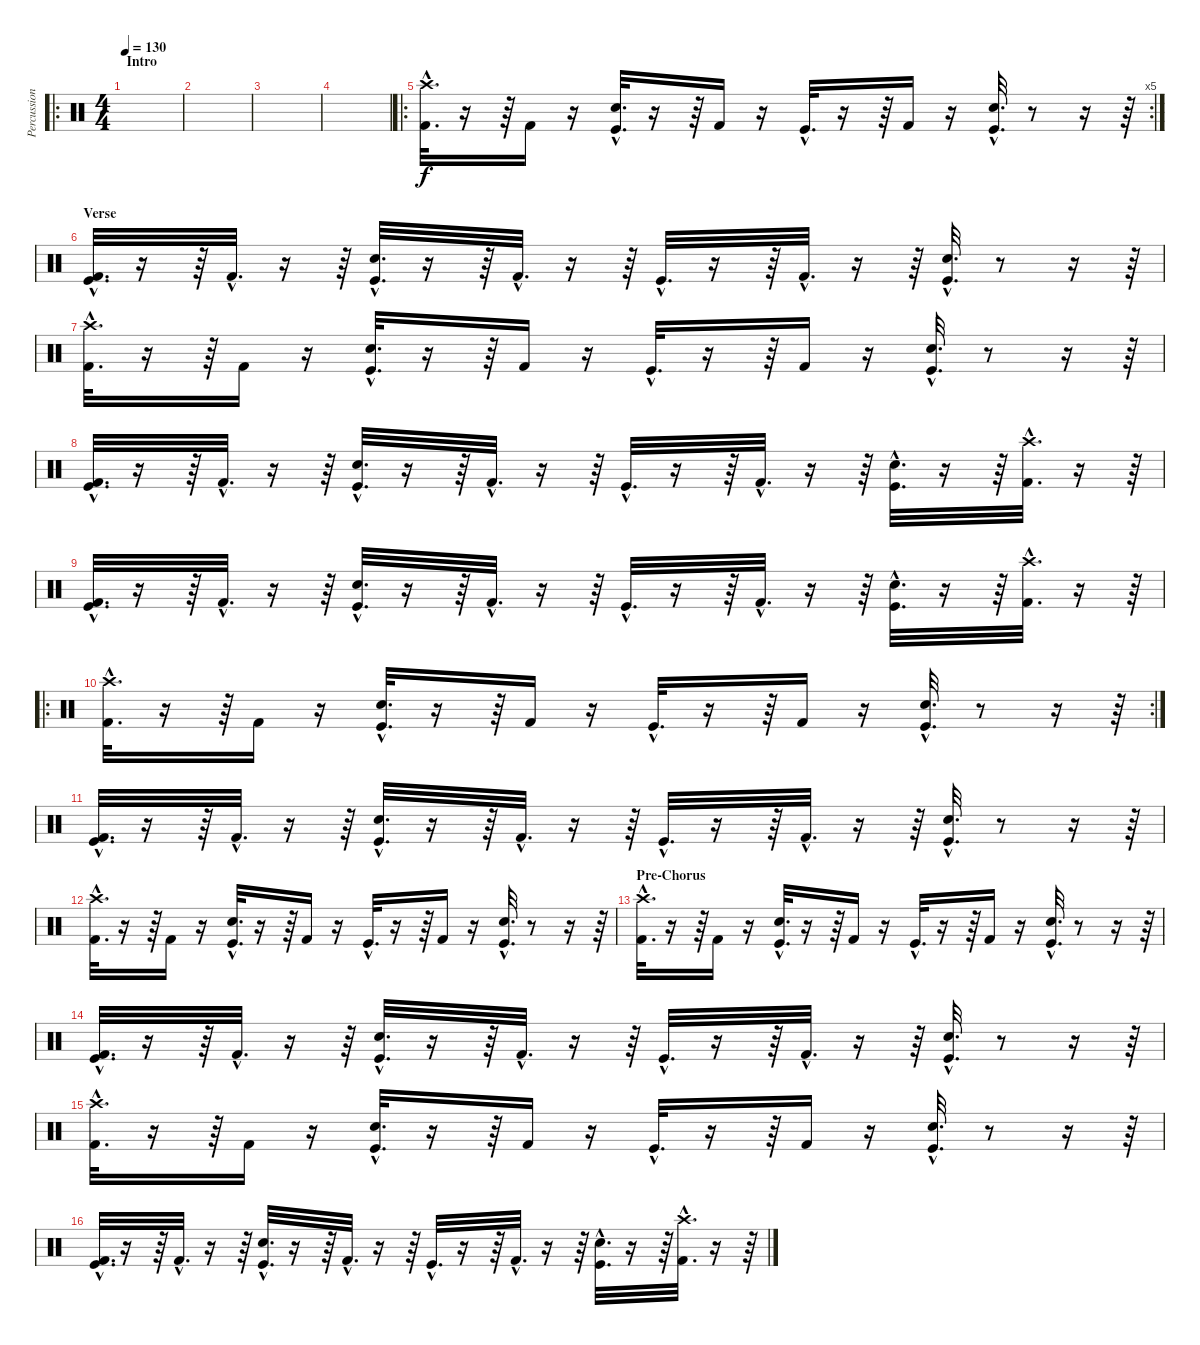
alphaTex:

\track ("Percussion" "Percussion") {instrument percussion}
\staff {score}
\articulation defaults
\ro
\ts (4 4)
\section ("" "Intro")
\tempo 130
\clef neutral
\ks c
|
|
|
|
\ro
\rc 5
("Kick (hit) 2"{hac} "Crash high (hit)"{hac}).32{d} r.16 r.64 "Kick (hit) 2".16 r.16 ("Kick (hit)"{hac} "Snare (hit) 2"{hac}).32{d} r.16 r.64 "Kick (hit) 2".16 r.16 "Kick (hit)"{hac}.32{d} r.16 r.64 "Kick (hit) 2".16 r.16 ("Kick (hit)"{hac} "Snare (hit) 2"{hac}).32{d} r.8 r.16 r.64 |
\section ("" "Verse ")
("Kick (hit)"{hac} "Kick (hit) 2"{hac}).32{d} r.16 r.64 "Kick (hit) 2"{hac}.32{d} r.16 r.64 ("Snare (hit) 2"{hac} "Kick (hit)"{hac}).32{d} r.16 r.64 "Kick (hit) 2"{hac}.32{d} r.16 r.64 "Kick (hit)"{hac}.32{d} r.16 r.64 "Kick (hit) 2"{hac}.32{d} r.16 r.64 ("Snare (hit) 2"{hac} "Kick (hit)"{hac}).32{d} r.8 r.16 r.64 |
("Kick (hit) 2"{hac} "Crash high (hit)"{hac}).32{d} r.16 r.64 "Kick (hit) 2".16 r.16 ("Kick (hit)"{hac} "Snare (hit) 2"{hac}).32{d} r.16 r.64 "Kick (hit) 2".16 r.16 "Kick (hit)"{hac}.32{d} r.16 r.64 "Kick (hit) 2".16 r.16 ("Kick (hit)"{hac} "Snare (hit) 2"{hac}).32{d} r.8 r.16 r.64 |
("Kick (hit)"{hac} "Kick (hit) 2"{hac}).32{d} r.16 r.64 "Kick (hit) 2"{hac}.32{d} r.16 r.64 ("Snare (hit) 2"{hac} "Kick (hit)"{hac}).32{d} r.16 r.64 "Kick (hit) 2"{hac}.32{d} r.16 r.64 "Kick (hit)"{hac}.32{d} r.16 r.64 "Kick (hit) 2"{hac}.32{d} r.16 r.64 ("Snare (hit) 2"{hac} "Kick (hit)"{hac}).32{d} r.16 r.64 ("Kick (hit) 2"{hac} "Crash high (hit)"{hac}).32{d} r.16 r.64 |
("Kick (hit)"{hac} "Kick (hit) 2"{hac}).32{d} r.16 r.64 "Kick (hit) 2"{hac}.32{d} r.16 r.64 ("Snare (hit) 2"{hac} "Kick (hit)"{hac}).32{d} r.16 r.64 "Kick (hit) 2"{hac}.32{d} r.16 r.64 "Kick (hit)"{hac}.32{d} r.16 r.64 "Kick (hit) 2"{hac}.32{d} r.16 r.64 ("Snare (hit) 2"{hac} "Kick (hit)"{hac}).32{d} r.16 r.64 ("Kick (hit) 2"{hac} "Crash high (hit)"{hac}).32{d} r.16 r.64 |
\ro
\rc 2
("Kick (hit) 2"{hac} "Crash high (hit)"{hac}).32{d} r.16 r.64 "Kick (hit) 2".16 r.16 ("Kick (hit)"{hac} "Snare (hit) 2"{hac}).32{d} r.16 r.64 "Kick (hit) 2".16 r.16 "Kick (hit)"{hac}.32{d} r.16 r.64 "Kick (hit) 2".16 r.16 ("Kick (hit)"{hac} "Snare (hit) 2"{hac}).32{d} r.8 r.16 r.64 |
("Kick (hit)"{hac} "Kick (hit) 2"{hac}).32{d} r.16 r.64 "Kick (hit) 2"{hac}.32{d} r.16 r.64 ("Snare (hit) 2"{hac} "Kick (hit)"{hac}).32{d} r.16 r.64 "Kick (hit) 2"{hac}.32{d} r.16 r.64 "Kick (hit)"{hac}.32{d} r.16 r.64 "Kick (hit) 2"{hac}.32{d} r.16 r.64 ("Snare (hit) 2"{hac} "Kick (hit)"{hac}).32{d} r.8 r.16 r.64 |
("Kick (hit) 2"{hac} "Crash high (hit)"{hac}).32{d} r.16 r.64 "Kick (hit) 2".16 r.16 ("Kick (hit)"{hac} "Snare (hit) 2"{hac}).32{d} r.16 r.64 "Kick (hit) 2".16 r.16 "Kick (hit)"{hac}.32{d} r.16 r.64 "Kick (hit) 2".16 r.16 ("Kick (hit)"{hac} "Snare (hit) 2"{hac}).32{d} r.8 r.16 r.64 |
\section ("" "Pre-Chorus")
("Kick (hit) 2"{hac} "Crash high (hit)"{hac}).32{d} r.16 r.64 "Kick (hit) 2".16 r.16 ("Kick (hit)"{hac} "Snare (hit) 2"{hac}).32{d} r.16 r.64 "Kick (hit) 2".16 r.16 "Kick (hit)"{hac}.32{d} r.16 r.64 "Kick (hit) 2".16 r.16 ("Kick (hit)"{hac} "Snare (hit) 2"{hac}).32{d} r.8 r.16 r.64 |
("Kick (hit)"{hac} "Kick (hit) 2"{hac}).32{d} r.16 r.64 "Kick (hit) 2"{hac}.32{d} r.16 r.64 ("Snare (hit) 2"{hac} "Kick (hit)"{hac}).32{d} r.16 r.64 "Kick (hit) 2"{hac}.32{d} r.16 r.64 "Kick (hit)"{hac}.32{d} r.16 r.64 "Kick (hit) 2"{hac}.32{d} r.16 r.64 ("Snare (hit) 2"{hac} "Kick (hit)"{hac}).32{d} r.8 r.16 r.64 |
("Kick (hit) 2"{hac} "Crash high (hit)"{hac}).32{d} r.16 r.64 "Kick (hit) 2".16 r.16 ("Kick (hit)"{hac} "Snare (hit) 2"{hac}).32{d} r.16 r.64 "Kick (hit) 2".16 r.16 "Kick (hit)"{hac}.32{d} r.16 r.64 "Kick (hit) 2".16 r.16 ("Kick (hit)"{hac} "Snare (hit) 2"{hac}).32{d} r.8 r.16 r.64 |
("Kick (hit)"{hac} "Kick (hit) 2"{hac}).32{d} r.16 r.64 "Kick (hit) 2"{hac}.32{d} r.16 r.64 ("Snare (hit) 2"{hac} "Kick (hit)"{hac}).32{d} r.16 r.64 "Kick (hit) 2"{hac}.32{d} r.16 r.64 "Kick (hit)"{hac}.32{d} r.16 r.64 "Kick (hit) 2"{hac}.32{d} r.16 r.64 ("Snare (hit) 2"{hac} "Kick (hit)"{hac}).32{d} r.16 r.64 ("Kick (hit) 2"{hac} "Crash high (hit)"{hac}).32{d} r.16 r.64
